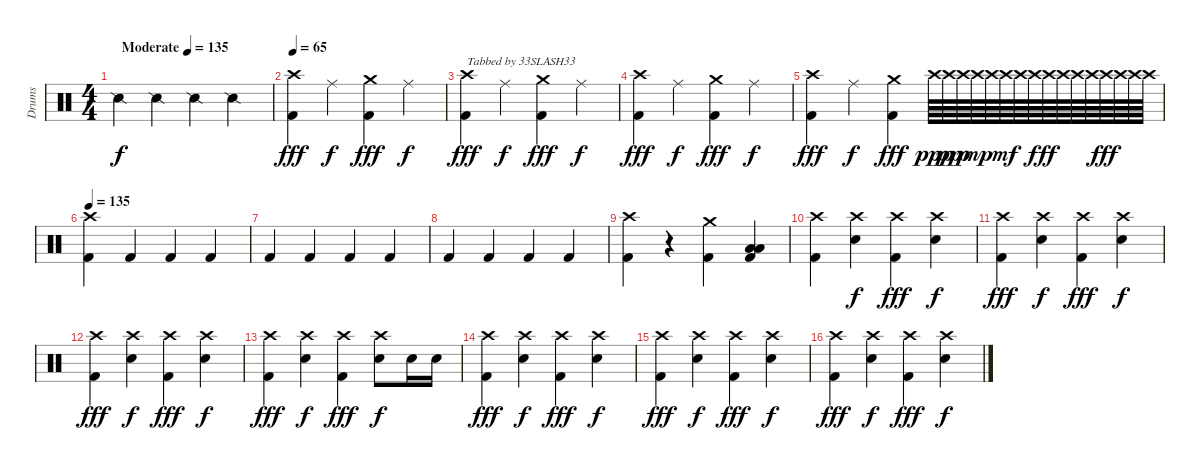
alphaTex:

\track ("Drums" "Drums") {instrument percussion}
\staff {score}
\articulation defaults
\ts (4 4)
\tempo (135 "Moderate")
\clef neutral
\ks c "Snare (side stick) 2".4{dy f} "Snare (side stick) 2".4 "Snare (side stick) 2".4 "Snare (side stick) 2".4
|
\tempo 65
("Crash high (hit)" "Kick (hit) 2").4{dy fff} "Ride (middle)".4{dy f} ("Crash medium (hit)" "Kick (hit) 2").4{dy fff} "Ride (middle)".4{dy f} |
("Crash high (hit)" "Kick (hit) 2").4{txt "Tabbed by 33SLASH33" dy fff} "Ride (middle)".4{dy f} ("Crash medium (hit)" "Kick (hit) 2").4{dy fff} "Ride (middle)".4{dy f} |
("Crash high (hit)" "Kick (hit) 2").4{dy fff} "Ride (middle)".4{dy f} ("Crash medium (hit)" "Kick (hit) 2").4{dy fff} "Ride (middle)".4{dy f} |
("Crash high (hit)" "Kick (hit) 2").4{dy fff} "Ride (middle)".4{dy f} ("Crash medium (hit)" "Kick (hit) 2").4{dy fff} "Crash high (hit)".64{dy ppp} "Crash high (hit)".64{dy pp} "Crash high (hit)".64{dy p} "Crash high (hit)".64{dy mp} "Crash high (hit)".64 "Crash high (hit)".64{dy mf} "Crash high (hit)".64 "Crash high (hit)".64{dy f} "Crash high (hit)".64{dy ff} "Crash high (hit)".64 "Crash high (hit)".64 "Crash high (hit)".64 "Crash high (hit)".64{dy fff} "Crash high (hit)".64 "Crash high (hit)".64 "Crash high (hit)".64 |
\tempo 135
("Crash high (hit)" "Kick (hit) 2").4 "Kick (hit) 2".4 "Kick (hit) 2".4 "Kick (hit) 2".4 |
"Kick (hit) 2".4 "Kick (hit) 2".4 "Kick (hit) 2".4 "Kick (hit) 2".4 |
"Kick (hit) 2".4 "Kick (hit) 2".4 "Kick (hit) 2".4 "Kick (hit) 2".4 |
("Crash high (hit)" "Kick (hit) 2").4 r.4 ("Crash medium (hit)" "Kick (hit) 2").4 ("Low Tom (hit)" "Low Floor Tom (hit)" "Kick (hit) 2").4 |
("Crash high (hit)" "Kick (hit) 2").4 ("Crash high (hit)" "Snare (hit) 2").4{dy f} ("Crash high (hit)" "Kick (hit) 2").4{dy fff} ("Crash high (hit)" "Snare (hit) 2").4{dy f} |
("Crash high (hit)" "Kick (hit) 2").4{dy fff} ("Crash high (hit)" "Snare (hit) 2").4{dy f} ("Crash high (hit)" "Kick (hit) 2").4{dy fff} ("Crash high (hit)" "Snare (hit) 2").4{dy f} |
("Crash high (hit)" "Kick (hit) 2").4{dy fff} ("Crash high (hit)" "Snare (hit) 2").4{dy f} ("Crash high (hit)" "Kick (hit) 2").4{dy fff} ("Crash high (hit)" "Snare (hit) 2").4{dy f} |
("Crash high (hit)" "Kick (hit) 2").4{dy fff} ("Crash high (hit)" "Snare (hit) 2").4{dy f} ("Crash high (hit)" "Kick (hit) 2").4{dy fff} ("Crash high (hit)" "Snare (hit) 2").8{dy f} "Snare (hit) 2".16 "Snare (hit) 2".16 |
("Crash high (hit)" "Kick (hit) 2").4{dy fff} ("Crash high (hit)" "Snare (hit) 2").4{dy f} ("Crash high (hit)" "Kick (hit) 2").4{dy fff} ("Crash high (hit)" "Snare (hit) 2").4{dy f} |
("Crash high (hit)" "Kick (hit) 2").4{dy fff} ("Crash high (hit)" "Snare (hit) 2").4{dy f} ("Crash high (hit)" "Kick (hit) 2").4{dy fff} ("Crash high (hit)" "Snare (hit) 2").4{dy f} |
("Crash high (hit)" "Kick (hit) 2").4{dy fff} ("Crash high (hit)" "Snare (hit) 2").4{dy f} ("Crash high (hit)" "Kick (hit) 2").4{dy fff} ("Crash high (hit)" "Snare (hit) 2").4{dy f}
